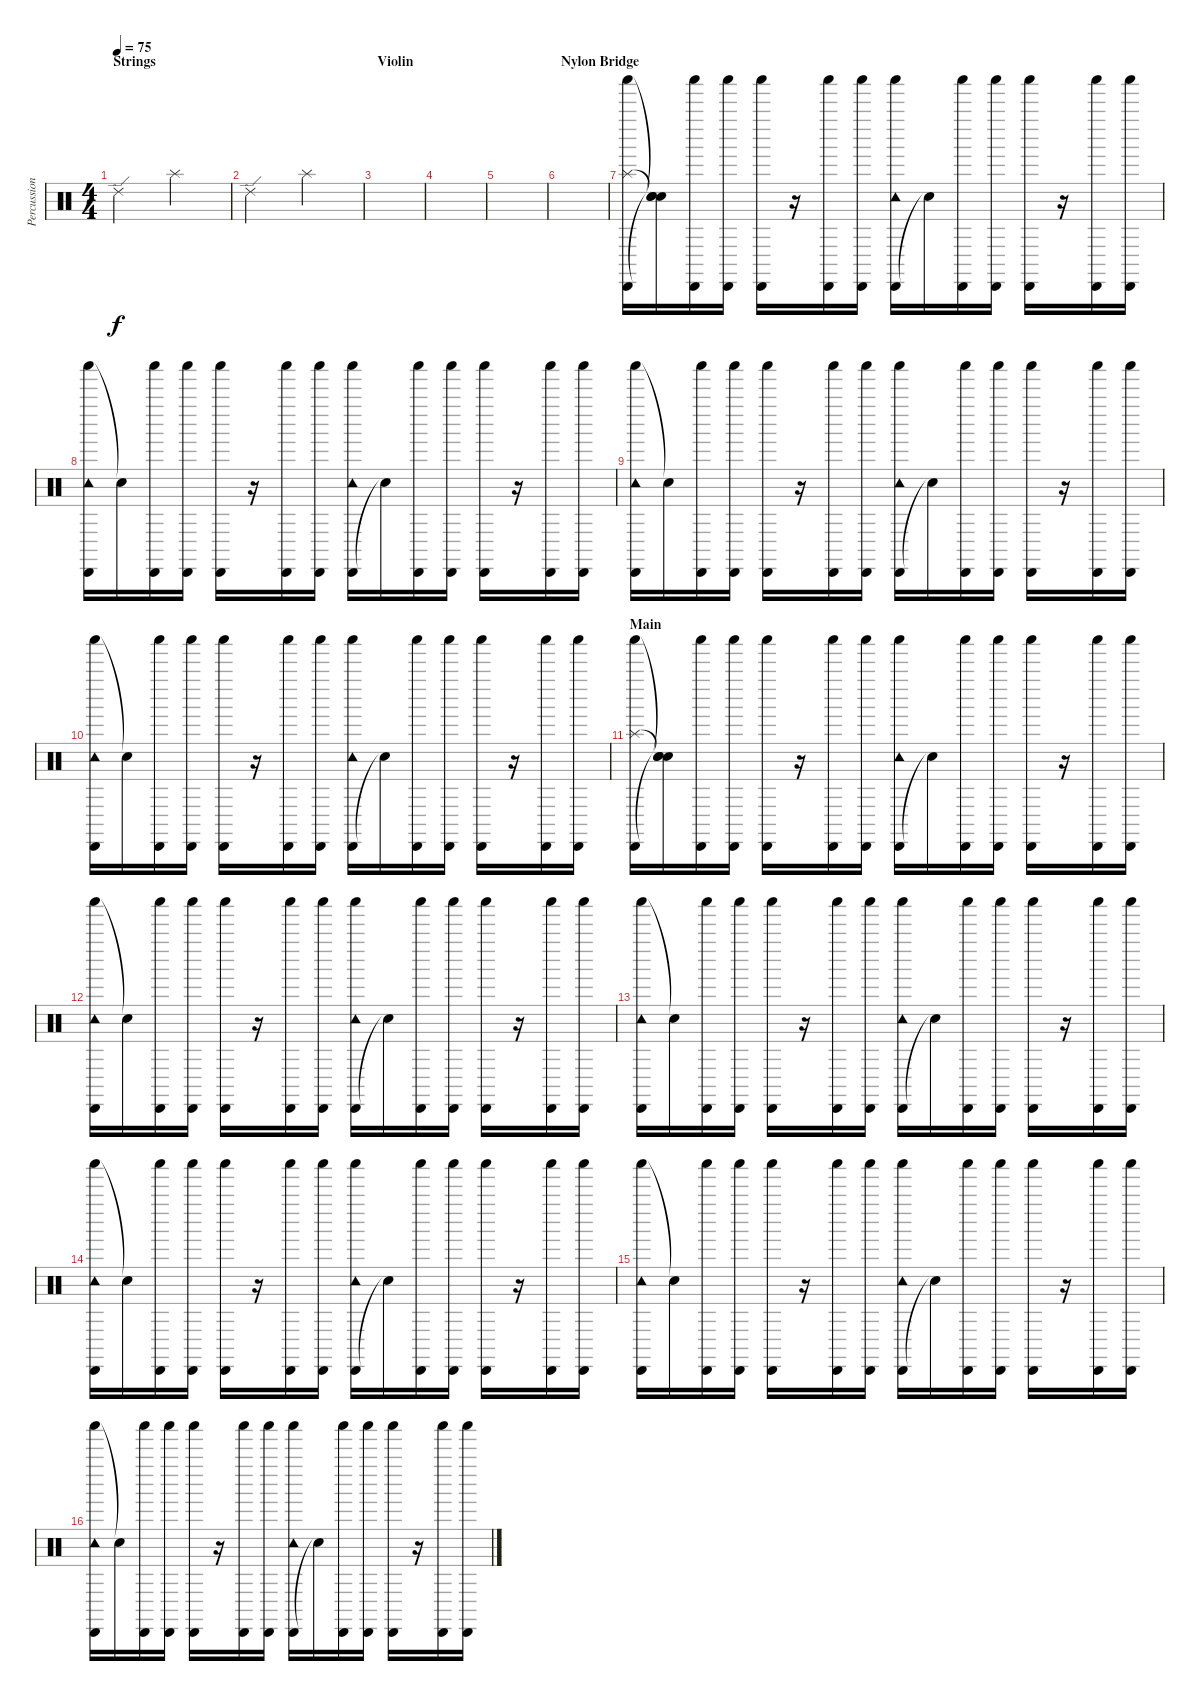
\track ("Percussion" "Percussion") {instrument percussion}
\staff {score}
\articulation defaults
\ts (4 4)
\section ("" "Strings")
\tempo 75
\clef neutral
\ks c "Ride (edge) 2".2{dy f} "Splash (hit)".2
|
"Ride (edge) 2".2 "Splash (hit)".2 |
\section ("" "Violin")
|
|
|
\section ("" "Nylon Bridge")
|
("Shaker (hit)" "Splash (hit)" "Cabasa (hit)").16{volume 7} ("Snare (hit)"{t} "Snare (hit)"{t} "Snare (hit)"{t}).16 ("Shaker (hit)" "Cabasa (hit)").16 ("Shaker (hit)" "Cabasa (hit)").16 ("Shaker (hit)" "Cabasa (hit)").16 r.16 ("Shaker (hit)" "Cabasa (hit)").16 ("Shaker (hit)" "Cabasa (hit)").16 ("Cabasa (hit)" "Tambourine (hit)" "Shaker (hit)").16 "Snare (hit)"{t}.16 ("Cabasa (hit)" "Shaker (hit)").16 ("Cabasa (hit)" "Shaker (hit)").16 ("Cabasa (hit)" "Shaker (hit)").16 r.16 ("Cabasa (hit)" "Shaker (hit)").16 ("Cabasa (hit)" "Shaker (hit)").16 |
("Shaker (hit)" "Tambourine (hit)" "Cabasa (hit)").16{volume 7} "Snare (hit)"{t}.16 ("Shaker (hit)" "Cabasa (hit)").16 ("Shaker (hit)" "Cabasa (hit)").16 ("Shaker (hit)" "Cabasa (hit)").16 r.16 ("Shaker (hit)" "Cabasa (hit)").16 ("Shaker (hit)" "Cabasa (hit)").16 ("Cabasa (hit)" "Tambourine (hit)" "Shaker (hit)").16 "Snare (hit)"{t}.16 ("Cabasa (hit)" "Shaker (hit)").16 ("Cabasa (hit)" "Shaker (hit)").16 ("Cabasa (hit)" "Shaker (hit)").16 r.16 ("Cabasa (hit)" "Shaker (hit)").16 ("Cabasa (hit)" "Shaker (hit)").16 |
("Shaker (hit)" "Tambourine (hit)" "Cabasa (hit)").16{volume 7} "Snare (hit)"{t}.16 ("Shaker (hit)" "Cabasa (hit)").16 ("Shaker (hit)" "Cabasa (hit)").16 ("Shaker (hit)" "Cabasa (hit)").16 r.16 ("Shaker (hit)" "Cabasa (hit)").16 ("Shaker (hit)" "Cabasa (hit)").16 ("Cabasa (hit)" "Tambourine (hit)" "Shaker (hit)").16 "Snare (hit)"{t}.16 ("Cabasa (hit)" "Shaker (hit)").16 ("Cabasa (hit)" "Shaker (hit)").16 ("Cabasa (hit)" "Shaker (hit)").16 r.16 ("Cabasa (hit)" "Shaker (hit)").16 ("Cabasa (hit)" "Shaker (hit)").16 |
("Shaker (hit)" "Tambourine (hit)" "Cabasa (hit)").16{volume 7} "Snare (hit)"{t}.16 ("Shaker (hit)" "Cabasa (hit)").16 ("Shaker (hit)" "Cabasa (hit)").16 ("Shaker (hit)" "Cabasa (hit)").16 r.16 ("Shaker (hit)" "Cabasa (hit)").16 ("Shaker (hit)" "Cabasa (hit)").16 ("Cabasa (hit)" "Tambourine (hit)" "Shaker (hit)").16 "Snare (hit)"{t}.16 ("Cabasa (hit)" "Shaker (hit)").16 ("Cabasa (hit)" "Shaker (hit)").16 ("Cabasa (hit)" "Shaker (hit)").16 r.16 ("Cabasa (hit)" "Shaker (hit)").16 ("Cabasa (hit)" "Shaker (hit)").16 |
\section ("" "Main")
("Shaker (hit)" "Splash (hit)" "Cabasa (hit)").16{volume 7} ("Snare (hit)"{t} "Snare (hit)"{t} "Snare (hit)"{t}).16 ("Shaker (hit)" "Cabasa (hit)").16 ("Shaker (hit)" "Cabasa (hit)").16 ("Shaker (hit)" "Cabasa (hit)").16 r.16 ("Shaker (hit)" "Cabasa (hit)").16 ("Shaker (hit)" "Cabasa (hit)").16 ("Cabasa (hit)" "Tambourine (hit)" "Shaker (hit)").16 "Snare (hit)"{t}.16 ("Cabasa (hit)" "Shaker (hit)").16 ("Cabasa (hit)" "Shaker (hit)").16 ("Cabasa (hit)" "Shaker (hit)").16 r.16 ("Cabasa (hit)" "Shaker (hit)").16 ("Cabasa (hit)" "Shaker (hit)").16 |
("Shaker (hit)" "Tambourine (hit)" "Cabasa (hit)").16{volume 7} "Snare (hit)"{t}.16 ("Shaker (hit)" "Cabasa (hit)").16 ("Shaker (hit)" "Cabasa (hit)").16 ("Shaker (hit)" "Cabasa (hit)").16 r.16 ("Shaker (hit)" "Cabasa (hit)").16 ("Shaker (hit)" "Cabasa (hit)").16 ("Cabasa (hit)" "Tambourine (hit)" "Shaker (hit)").16 "Snare (hit)"{t}.16 ("Cabasa (hit)" "Shaker (hit)").16 ("Cabasa (hit)" "Shaker (hit)").16 ("Cabasa (hit)" "Shaker (hit)").16 r.16 ("Cabasa (hit)" "Shaker (hit)").16 ("Cabasa (hit)" "Shaker (hit)").16 |
("Shaker (hit)" "Tambourine (hit)" "Cabasa (hit)").16{volume 7} "Snare (hit)"{t}.16 ("Shaker (hit)" "Cabasa (hit)").16 ("Shaker (hit)" "Cabasa (hit)").16 ("Shaker (hit)" "Cabasa (hit)").16 r.16 ("Shaker (hit)" "Cabasa (hit)").16 ("Shaker (hit)" "Cabasa (hit)").16 ("Cabasa (hit)" "Tambourine (hit)" "Shaker (hit)").16 "Snare (hit)"{t}.16 ("Cabasa (hit)" "Shaker (hit)").16 ("Cabasa (hit)" "Shaker (hit)").16 ("Cabasa (hit)" "Shaker (hit)").16 r.16 ("Cabasa (hit)" "Shaker (hit)").16 ("Cabasa (hit)" "Shaker (hit)").16 |
("Shaker (hit)" "Tambourine (hit)" "Cabasa (hit)").16{volume 7} "Snare (hit)"{t}.16 ("Shaker (hit)" "Cabasa (hit)").16 ("Shaker (hit)" "Cabasa (hit)").16 ("Shaker (hit)" "Cabasa (hit)").16 r.16 ("Shaker (hit)" "Cabasa (hit)").16 ("Shaker (hit)" "Cabasa (hit)").16 ("Cabasa (hit)" "Tambourine (hit)" "Shaker (hit)").16 "Snare (hit)"{t}.16 ("Cabasa (hit)" "Shaker (hit)").16 ("Cabasa (hit)" "Shaker (hit)").16 ("Cabasa (hit)" "Shaker (hit)").16 r.16 ("Cabasa (hit)" "Shaker (hit)").16 ("Cabasa (hit)" "Shaker (hit)").16 |
("Shaker (hit)" "Tambourine (hit)" "Cabasa (hit)").16{volume 7} "Snare (hit)"{t}.16 ("Shaker (hit)" "Cabasa (hit)").16 ("Shaker (hit)" "Cabasa (hit)").16 ("Shaker (hit)" "Cabasa (hit)").16 r.16 ("Shaker (hit)" "Cabasa (hit)").16 ("Shaker (hit)" "Cabasa (hit)").16 ("Cabasa (hit)" "Tambourine (hit)" "Shaker (hit)").16 "Snare (hit)"{t}.16 ("Cabasa (hit)" "Shaker (hit)").16 ("Cabasa (hit)" "Shaker (hit)").16 ("Cabasa (hit)" "Shaker (hit)").16 r.16 ("Cabasa (hit)" "Shaker (hit)").16 ("Cabasa (hit)" "Shaker (hit)").16 |
("Shaker (hit)" "Tambourine (hit)" "Cabasa (hit)").16{volume 7} "Snare (hit)"{t}.16 ("Shaker (hit)" "Cabasa (hit)").16 ("Shaker (hit)" "Cabasa (hit)").16 ("Shaker (hit)" "Cabasa (hit)").16 r.16 ("Shaker (hit)" "Cabasa (hit)").16 ("Shaker (hit)" "Cabasa (hit)").16 ("Cabasa (hit)" "Tambourine (hit)" "Shaker (hit)").16 "Snare (hit)"{t}.16 ("Cabasa (hit)" "Shaker (hit)").16 ("Cabasa (hit)" "Shaker (hit)").16 ("Cabasa (hit)" "Shaker (hit)").16 r.16 ("Cabasa (hit)" "Shaker (hit)").16 ("Cabasa (hit)" "Shaker (hit)").16
